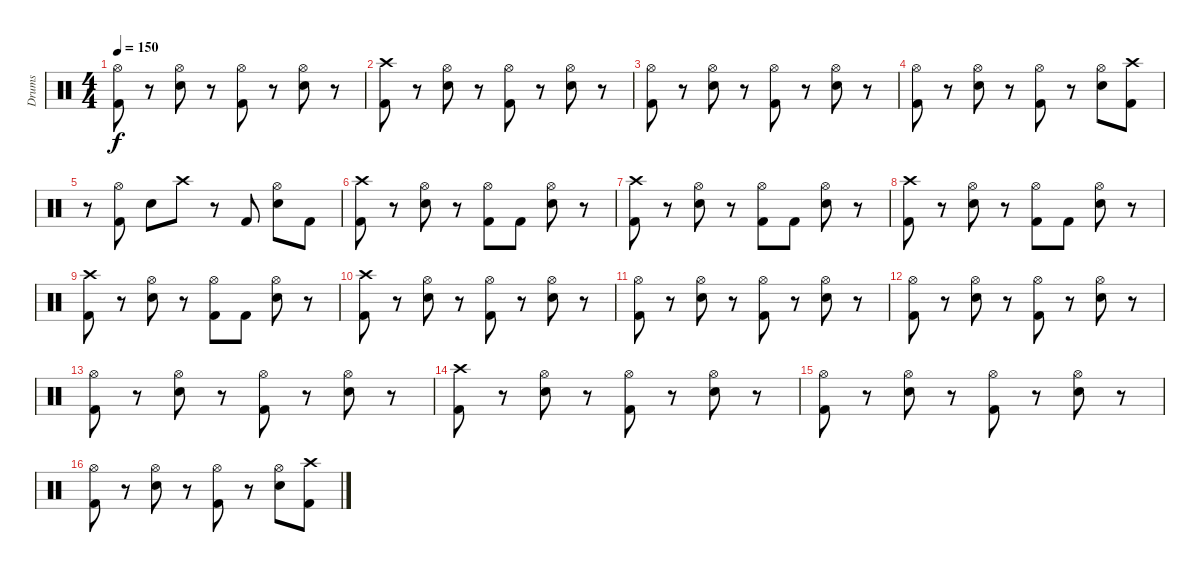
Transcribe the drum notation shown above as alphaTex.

\track ("Drums" "Drums") {instrument percussion}
\staff {score}
\articulation defaults
\ts (4 4)
\tempo 150
\clef neutral
\ks c
("Hi-Hat (open)" "Kick (hit) 2").8{dy f} r.8 ("Hi-Hat (open)" "Snare (hit) 2").8 r.8 ("Hi-Hat (open)" "Kick (hit) 2").8 r.8 ("Hi-Hat (open)" "Snare (hit) 2").8 r.8 |
("Crash high (hit)" "Kick (hit) 2").8 r.8 ("Hi-Hat (open)" "Snare (hit) 2").8 r.8 ("Hi-Hat (open)" "Kick (hit) 2").8 r.8 ("Hi-Hat (open)" "Snare (hit) 2").8 r.8 |
("Hi-Hat (open)" "Kick (hit) 2").8 r.8 ("Hi-Hat (open)" "Snare (hit) 2").8 r.8 ("Hi-Hat (open)" "Kick (hit) 2").8 r.8 ("Hi-Hat (open)" "Snare (hit) 2").8 r.8 |
("Hi-Hat (open)" "Kick (hit) 2").8 r.8 ("Hi-Hat (open)" "Snare (hit) 2").8 r.8 ("Hi-Hat (open)" "Kick (hit) 2").8 r.8 ("Hi-Hat (open)" "Snare (hit) 2").8 ("Crash high (hit)" "Kick (hit) 2").8 |
r.8 ("Hi-Hat (open)" "Kick (hit) 2").8 "Snare (hit) 2".8 "Crash high (hit)".8 r.8 "Kick (hit) 2".8 ("Hi-Hat (open)" "Snare (hit) 2").8 "Kick (hit) 2".8 |
("Crash high (hit)" "Kick (hit) 2").8 r.8 ("Hi-Hat (open)" "Snare (hit) 2").8 r.8 ("Hi-Hat (open)" "Kick (hit) 2").8 "Kick (hit) 2".8 ("Hi-Hat (open)" "Snare (hit) 2").8 r.8 |
("Crash high (hit)" "Kick (hit) 2").8 r.8 ("Hi-Hat (open)" "Snare (hit) 2").8 r.8 ("Hi-Hat (open)" "Kick (hit) 2").8 "Kick (hit) 2".8 ("Hi-Hat (open)" "Snare (hit) 2").8 r.8 |
("Crash high (hit)" "Kick (hit) 2").8 r.8 ("Hi-Hat (open)" "Snare (hit) 2").8 r.8 ("Hi-Hat (open)" "Kick (hit) 2").8 "Kick (hit) 2".8 ("Hi-Hat (open)" "Snare (hit) 2").8 r.8 |
("Crash high (hit)" "Kick (hit) 2").8 r.8 ("Hi-Hat (open)" "Snare (hit) 2").8 r.8 ("Hi-Hat (open)" "Kick (hit) 2").8 "Kick (hit) 2".8 ("Hi-Hat (open)" "Snare (hit) 2").8 r.8 |
("Crash high (hit)" "Kick (hit) 2").8 r.8 ("Hi-Hat (open)" "Snare (hit) 2").8 r.8 ("Hi-Hat (open)" "Kick (hit) 2").8 r.8 ("Hi-Hat (open)" "Snare (hit) 2").8 r.8 |
("Hi-Hat (open)" "Kick (hit) 2").8 r.8 ("Hi-Hat (open)" "Snare (hit) 2").8 r.8 ("Hi-Hat (open)" "Kick (hit) 2").8 r.8 ("Hi-Hat (open)" "Snare (hit) 2").8 r.8 |
("Hi-Hat (open)" "Kick (hit) 2").8 r.8 ("Hi-Hat (open)" "Snare (hit) 2").8 r.8 ("Hi-Hat (open)" "Kick (hit) 2").8 r.8 ("Hi-Hat (open)" "Snare (hit) 2").8 r.8 |
("Hi-Hat (open)" "Kick (hit) 2").8 r.8 ("Hi-Hat (open)" "Snare (hit) 2").8 r.8 ("Hi-Hat (open)" "Kick (hit) 2").8 r.8 ("Hi-Hat (open)" "Snare (hit) 2").8 r.8 |
("Crash high (hit)" "Kick (hit) 2").8 r.8 ("Hi-Hat (open)" "Snare (hit) 2").8 r.8 ("Hi-Hat (open)" "Kick (hit) 2").8 r.8 ("Hi-Hat (open)" "Snare (hit) 2").8 r.8 |
("Hi-Hat (open)" "Kick (hit) 2").8 r.8 ("Hi-Hat (open)" "Snare (hit) 2").8 r.8 ("Hi-Hat (open)" "Kick (hit) 2").8 r.8 ("Hi-Hat (open)" "Snare (hit) 2").8 r.8 |
("Hi-Hat (open)" "Kick (hit) 2").8 r.8 ("Hi-Hat (open)" "Snare (hit) 2").8 r.8 ("Hi-Hat (open)" "Kick (hit) 2").8 r.8 ("Hi-Hat (open)" "Snare (hit) 2").8 ("Crash high (hit)" "Kick (hit) 2").8
